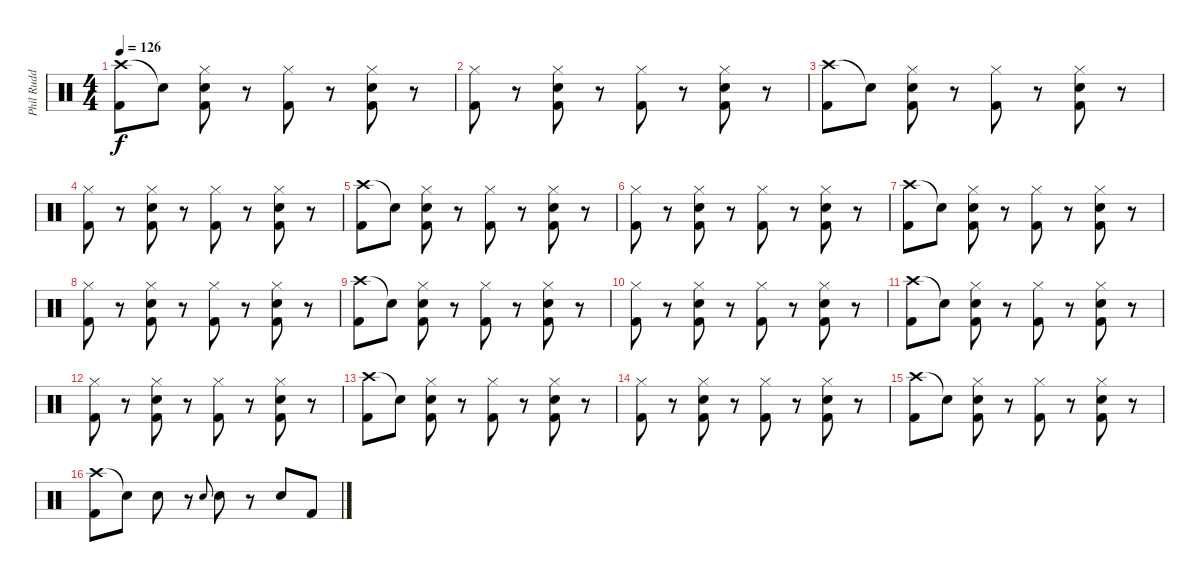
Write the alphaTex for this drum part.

\track ("Phil Rudd" "Phil Rudd") {instrument percussion}
\staff {score}
\articulation defaults
\ts (4 4)
\tempo 126
\clef neutral
\ks c
("Crash high (hit)" "Kick (hit) 2").8{dy f} "Snare (hit)"{t}.8 ("Hi-Hat (closed)" "Snare (hit) 2" "Kick (hit) 2").8 r.8 ("Hi-Hat (closed)" "Kick (hit) 2").8 r.8 ("Hi-Hat (closed)" "Snare (hit) 2" "Kick (hit) 2").8 r.8 |
("Hi-Hat (closed)" "Kick (hit) 2").8 r.8 ("Hi-Hat (closed)" "Snare (hit) 2" "Kick (hit) 2").8 r.8 ("Hi-Hat (closed)" "Kick (hit) 2").8 r.8 ("Hi-Hat (closed)" "Snare (hit) 2" "Kick (hit) 2").8 r.8 |
("Crash high (hit)" "Kick (hit) 2").8 "Snare (hit)"{t}.8 ("Hi-Hat (closed)" "Snare (hit) 2" "Kick (hit) 2").8 r.8 ("Hi-Hat (closed)" "Kick (hit) 2").8 r.8 ("Hi-Hat (closed)" "Snare (hit) 2" "Kick (hit) 2").8 r.8 |
("Hi-Hat (closed)" "Kick (hit) 2").8 r.8 ("Hi-Hat (closed)" "Snare (hit) 2" "Kick (hit) 2").8 r.8 ("Hi-Hat (closed)" "Kick (hit) 2").8 r.8 ("Hi-Hat (closed)" "Snare (hit) 2" "Kick (hit) 2").8 r.8 |
("Crash high (hit)" "Kick (hit) 2").8 "Snare (hit)"{t}.8 ("Hi-Hat (closed)" "Snare (hit) 2" "Kick (hit) 2").8 r.8 ("Hi-Hat (closed)" "Kick (hit) 2").8 r.8 ("Hi-Hat (closed)" "Snare (hit) 2" "Kick (hit) 2").8 r.8 |
("Hi-Hat (closed)" "Kick (hit) 2").8 r.8 ("Hi-Hat (closed)" "Snare (hit) 2" "Kick (hit) 2").8 r.8 ("Hi-Hat (closed)" "Kick (hit) 2").8 r.8 ("Hi-Hat (closed)" "Snare (hit) 2" "Kick (hit) 2").8 r.8 |
("Crash high (hit)" "Kick (hit) 2").8 "Snare (hit)"{t}.8 ("Hi-Hat (closed)" "Snare (hit) 2" "Kick (hit) 2").8 r.8 ("Hi-Hat (closed)" "Kick (hit) 2").8 r.8 ("Hi-Hat (closed)" "Snare (hit) 2" "Kick (hit) 2").8 r.8 |
("Hi-Hat (closed)" "Kick (hit) 2").8 r.8 ("Hi-Hat (closed)" "Snare (hit) 2" "Kick (hit) 2").8 r.8 ("Hi-Hat (closed)" "Kick (hit) 2").8 r.8 ("Hi-Hat (closed)" "Snare (hit) 2" "Kick (hit) 2").8 r.8 |
("Crash high (hit)" "Kick (hit) 2").8 "Snare (hit)"{t}.8 ("Hi-Hat (closed)" "Snare (hit) 2" "Kick (hit) 2").8 r.8 ("Hi-Hat (closed)" "Kick (hit) 2").8 r.8 ("Hi-Hat (closed)" "Snare (hit) 2" "Kick (hit) 2").8 r.8 |
("Hi-Hat (closed)" "Kick (hit) 2").8 r.8 ("Hi-Hat (closed)" "Snare (hit) 2" "Kick (hit) 2").8 r.8 ("Hi-Hat (closed)" "Kick (hit) 2").8 r.8 ("Hi-Hat (closed)" "Snare (hit) 2" "Kick (hit) 2").8 r.8 |
("Crash high (hit)" "Kick (hit) 2").8 "Snare (hit)"{t}.8 ("Hi-Hat (closed)" "Snare (hit) 2" "Kick (hit) 2").8 r.8 ("Hi-Hat (closed)" "Kick (hit) 2").8 r.8 ("Hi-Hat (closed)" "Snare (hit) 2" "Kick (hit) 2").8 r.8 |
("Hi-Hat (closed)" "Kick (hit) 2").8 r.8 ("Hi-Hat (closed)" "Snare (hit) 2" "Kick (hit) 2").8 r.8 ("Hi-Hat (closed)" "Kick (hit) 2").8 r.8 ("Hi-Hat (closed)" "Snare (hit) 2" "Kick (hit) 2").8 r.8 |
("Crash high (hit)" "Kick (hit) 2").8 "Snare (hit)"{t}.8 ("Hi-Hat (closed)" "Snare (hit) 2" "Kick (hit) 2").8 r.8 ("Hi-Hat (closed)" "Kick (hit) 2").8 r.8 ("Hi-Hat (closed)" "Snare (hit) 2" "Kick (hit) 2").8 r.8 |
("Hi-Hat (closed)" "Kick (hit) 2").8 r.8 ("Hi-Hat (closed)" "Snare (hit) 2" "Kick (hit) 2").8 r.8 ("Hi-Hat (closed)" "Kick (hit) 2").8 r.8 ("Hi-Hat (closed)" "Snare (hit) 2" "Kick (hit) 2").8 r.8 |
("Crash high (hit)" "Kick (hit) 2").8 "Snare (hit)"{t}.8 ("Hi-Hat (closed)" "Snare (hit) 2" "Kick (hit) 2").8 r.8 ("Hi-Hat (closed)" "Kick (hit) 2").8 r.8 ("Hi-Hat (closed)" "Snare (hit) 2" "Kick (hit) 2").8 r.8 |
("Crash high (hit)" "Kick (hit) 2").8 "Snare (hit)"{t}.8 "Snare (hit) 2".8 r.8 "Snare (hit) 2".8{gr onbeat} "Snare (hit) 2".8 r.8 "Snare (hit) 2".8 "Kick (hit) 2".8
